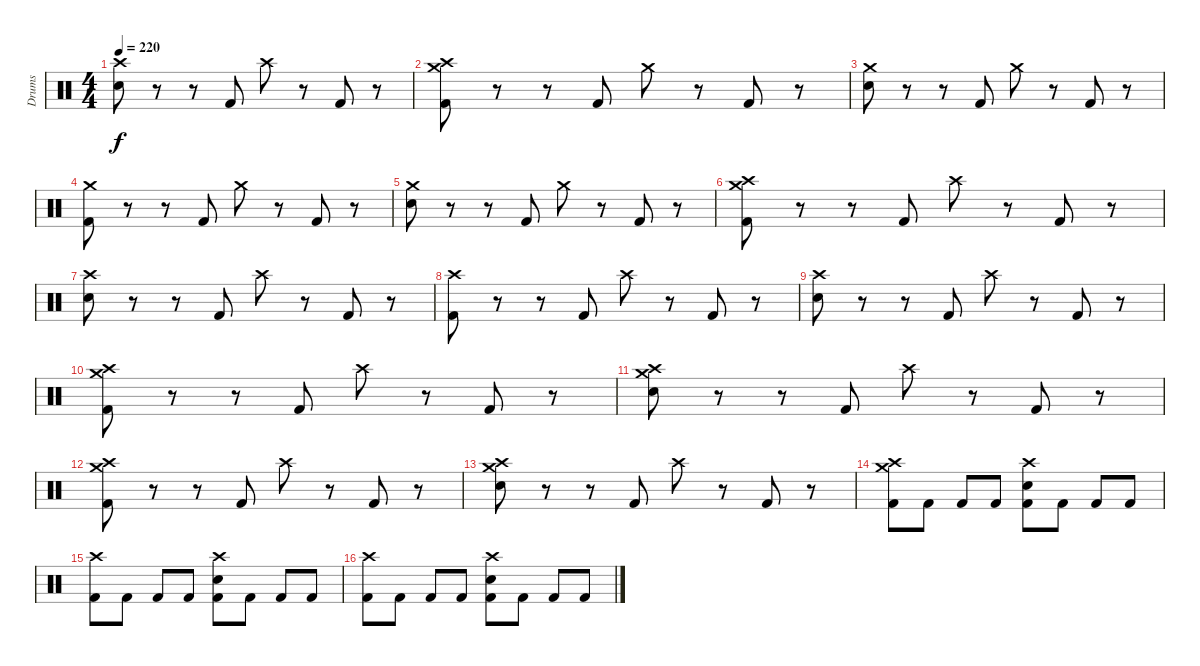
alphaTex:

\track ("Drums" "Drums") {instrument percussion}
\staff {score}
\articulation defaults
\ts (4 4)
\tempo 220
\clef neutral
\ks c
("Crash high (hit)" "Electric Snare (hit)").8{dy f} r.8 r.8 "Kick (hit) 2".8 "Crash high (hit)".8 r.8 "Kick (hit) 2".8 r.8 |
("Crash high (hit)" "Crash medium (hit)" "Kick (hit) 2").8 r.8 r.8 "Kick (hit) 2".8 "Crash medium (hit)".8 r.8 "Kick (hit) 2".8 r.8 |
("Crash medium (hit)" "Electric Snare (hit)").8 r.8 r.8 "Kick (hit) 2".8 "Crash medium (hit)".8 r.8 "Kick (hit) 2".8 r.8 |
("Crash medium (hit)" "Kick (hit) 2").8 r.8 r.8 "Kick (hit) 2".8 "Crash medium (hit)".8 r.8 "Kick (hit) 2".8 r.8 |
("Crash medium (hit)" "Electric Snare (hit)").8 r.8 r.8 "Kick (hit) 2".8 "Crash medium (hit)".8 r.8 "Kick (hit) 2".8 r.8 |
("Crash high (hit)" "Crash medium (hit)" "Kick (hit) 2").8 r.8 r.8 "Kick (hit) 2".8 "Crash high (hit)".8 r.8 "Kick (hit) 2".8 r.8 |
("Crash high (hit)" "Electric Snare (hit)").8 r.8 r.8 "Kick (hit) 2".8 "Crash high (hit)".8 r.8 "Kick (hit) 2".8 r.8 |
("Crash high (hit)" "Kick (hit) 2").8 r.8 r.8 "Kick (hit) 2".8 "Crash high (hit)".8 r.8 "Kick (hit) 2".8 r.8 |
("Crash high (hit)" "Electric Snare (hit)").8 r.8 r.8 "Kick (hit) 2".8 "Crash high (hit)".8 r.8 "Kick (hit) 2".8 r.8 |
("Crash high (hit)" "Crash medium (hit)" "Kick (hit) 2").8 r.8 r.8 "Kick (hit) 2".8 "Crash high (hit)".8 r.8 "Kick (hit) 2".8 r.8 |
("Crash high (hit)" "Crash medium (hit)" "Electric Snare (hit)").8 r.8 r.8 "Kick (hit) 2".8 "Crash high (hit)".8 r.8 "Kick (hit) 2".8 r.8 |
("Crash high (hit)" "Crash medium (hit)" "Kick (hit) 2").8 r.8 r.8 "Kick (hit) 2".8 "Crash high (hit)".8 r.8 "Kick (hit) 2".8 r.8 |
("Crash high (hit)" "Crash medium (hit)" "Electric Snare (hit)").8 r.8 r.8 "Kick (hit) 2".8 "Crash high (hit)".8 r.8 "Kick (hit) 2".8 r.8 |
("Crash high (hit)" "Crash medium (hit)" "Kick (hit) 2").8 "Kick (hit) 2".8 "Kick (hit) 2".8 "Kick (hit) 2".8 ("Crash high (hit)" "Electric Snare (hit)" "Kick (hit) 2").8 "Kick (hit) 2".8 "Kick (hit) 2".8 "Kick (hit) 2".8 |
("Crash high (hit)" "Kick (hit) 2").8 "Kick (hit) 2".8 "Kick (hit) 2".8 "Kick (hit) 2".8 ("Crash high (hit)" "Electric Snare (hit)" "Kick (hit) 2").8 "Kick (hit) 2".8 "Kick (hit) 2".8 "Kick (hit) 2".8 |
("Crash high (hit)" "Kick (hit) 2").8 "Kick (hit) 2".8 "Kick (hit) 2".8 "Kick (hit) 2".8 ("Crash high (hit)" "Electric Snare (hit)" "Kick (hit) 2").8 "Kick (hit) 2".8 "Kick (hit) 2".8 "Kick (hit) 2".8
